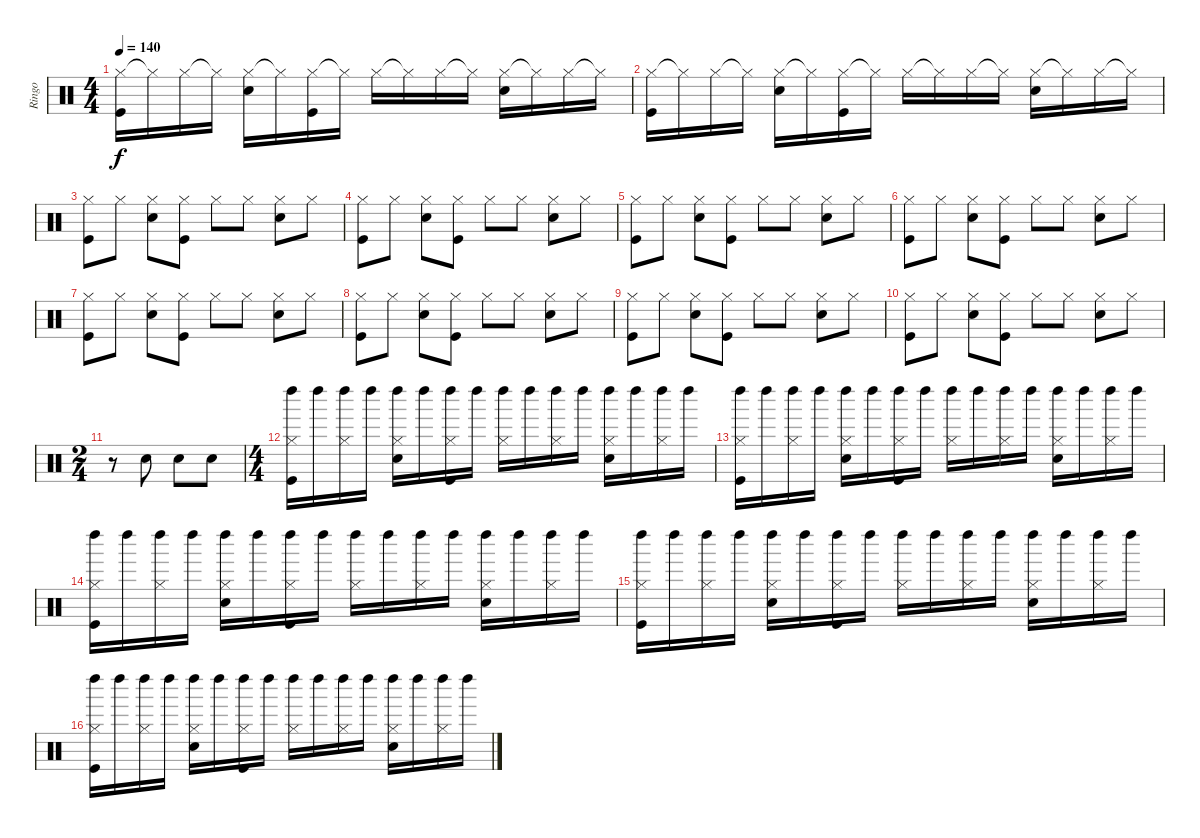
\track ("Ringo" "Ringo") {instrument percussion}
\staff {score}
\articulation defaults
\ts (4 4)
\tempo 140
\clef neutral
\ks c
("Hi-Hat (closed)" "Kick (hit)").16{dy f} "Hi-Hat (closed)"{t}.16 "Hi-Hat (closed)".16 "Hi-Hat (closed)"{t}.16 ("Hi-Hat (closed)" "Snare (hit) 2").16 "Hi-Hat (closed)"{t}.16 ("Hi-Hat (closed)" "Kick (hit)").16 "Hi-Hat (closed)"{t}.16 "Hi-Hat (closed)".16 "Hi-Hat (closed)"{t}.16 "Hi-Hat (closed)".16 "Hi-Hat (closed)"{t}.16 ("Hi-Hat (closed)" "Snare (hit) 2").16 "Hi-Hat (closed)"{t}.16 "Hi-Hat (closed)".16 "Hi-Hat (closed)"{t}.16 |
("Hi-Hat (closed)" "Kick (hit)").16 "Hi-Hat (closed)"{t}.16 "Hi-Hat (closed)".16 "Hi-Hat (closed)"{t}.16 ("Hi-Hat (closed)" "Snare (hit) 2").16 "Hi-Hat (closed)"{t}.16 ("Hi-Hat (closed)" "Kick (hit)").16 "Hi-Hat (closed)"{t}.16 "Hi-Hat (closed)".16 "Hi-Hat (closed)"{t}.16 "Hi-Hat (closed)".16 "Hi-Hat (closed)"{t}.16 ("Hi-Hat (closed)" "Snare (hit) 2").16 "Hi-Hat (closed)"{t}.16 "Hi-Hat (closed)".16 "Hi-Hat (closed)"{t}.16 |
("Hi-Hat (closed)" "Kick (hit)").8 "Hi-Hat (closed)".8 ("Hi-Hat (closed)" "Snare (hit) 2").8 ("Hi-Hat (closed)" "Kick (hit)").8 "Hi-Hat (closed)".8 "Hi-Hat (closed)".8 ("Hi-Hat (closed)" "Snare (hit) 2").8 "Hi-Hat (closed)".8 |
("Hi-Hat (closed)" "Kick (hit)").8 "Hi-Hat (closed)".8 ("Hi-Hat (closed)" "Snare (hit) 2").8 ("Hi-Hat (closed)" "Kick (hit)").8 "Hi-Hat (closed)".8 "Hi-Hat (closed)".8 ("Hi-Hat (closed)" "Snare (hit) 2").8 "Hi-Hat (closed)".8 |
("Hi-Hat (closed)" "Kick (hit)").8 "Hi-Hat (closed)".8 ("Hi-Hat (closed)" "Snare (hit) 2").8 ("Hi-Hat (closed)" "Kick (hit)").8 "Hi-Hat (closed)".8 "Hi-Hat (closed)".8 ("Hi-Hat (closed)" "Snare (hit) 2").8 "Hi-Hat (closed)".8 |
("Hi-Hat (closed)" "Kick (hit)").8 "Hi-Hat (closed)".8 ("Hi-Hat (closed)" "Snare (hit) 2").8 ("Hi-Hat (closed)" "Kick (hit)").8 "Hi-Hat (closed)".8 "Hi-Hat (closed)".8 ("Hi-Hat (closed)" "Snare (hit) 2").8 "Hi-Hat (closed)".8 |
("Hi-Hat (closed)" "Kick (hit)").8 "Hi-Hat (closed)".8 ("Hi-Hat (closed)" "Snare (hit) 2").8 ("Hi-Hat (closed)" "Kick (hit)").8 "Hi-Hat (closed)".8 "Hi-Hat (closed)".8 ("Hi-Hat (closed)" "Snare (hit) 2").8 "Hi-Hat (closed)".8 |
("Hi-Hat (closed)" "Kick (hit)").8 "Hi-Hat (closed)".8 ("Hi-Hat (closed)" "Snare (hit) 2").8 ("Hi-Hat (closed)" "Kick (hit)").8 "Hi-Hat (closed)".8 "Hi-Hat (closed)".8 ("Hi-Hat (closed)" "Snare (hit) 2").8 "Hi-Hat (closed)".8 |
("Hi-Hat (closed)" "Kick (hit)").8 "Hi-Hat (closed)".8 ("Hi-Hat (closed)" "Snare (hit) 2").8 ("Hi-Hat (closed)" "Kick (hit)").8 "Hi-Hat (closed)".8 "Hi-Hat (closed)".8 ("Hi-Hat (closed)" "Snare (hit) 2").8 "Hi-Hat (closed)".8 |
("Hi-Hat (closed)" "Kick (hit)").8 "Hi-Hat (closed)".8 ("Hi-Hat (closed)" "Snare (hit) 2").8 ("Hi-Hat (closed)" "Kick (hit)").8 "Hi-Hat (closed)".8 "Hi-Hat (closed)".8 ("Hi-Hat (closed)" "Snare (hit) 2").8 "Hi-Hat (closed)".8 |
\ts (2 4)
r.8 "Snare (hit) 2".8 "Snare (hit) 2".8 "Snare (hit) 2".8 |
\ts (4 4)
("Left Maraca (hit)" "Hi-Hat (closed)" "Kick (hit)").16 "Left Maraca (hit)".16 ("Left Maraca (hit)" "Hi-Hat (closed)").16 "Left Maraca (hit)".16 ("Left Maraca (hit)" "Hi-Hat (closed)" "Snare (hit) 2").16 "Left Maraca (hit)".16 ("Left Maraca (hit)" "Hi-Hat (closed)" "Kick (hit)").16 "Left Maraca (hit)".16 ("Left Maraca (hit)" "Hi-Hat (closed)").16 "Left Maraca (hit)".16 ("Left Maraca (hit)" "Hi-Hat (closed)").16 "Left Maraca (hit)".16 ("Left Maraca (hit)" "Hi-Hat (closed)" "Snare (hit) 2").16 "Left Maraca (hit)".16 ("Left Maraca (hit)" "Hi-Hat (closed)").16 "Left Maraca (hit)".16 |
("Left Maraca (hit)" "Hi-Hat (closed)" "Kick (hit)").16 "Left Maraca (hit)".16 ("Left Maraca (hit)" "Hi-Hat (closed)").16 "Left Maraca (hit)".16 ("Left Maraca (hit)" "Hi-Hat (closed)" "Snare (hit) 2").16 "Left Maraca (hit)".16 ("Left Maraca (hit)" "Hi-Hat (closed)" "Kick (hit)").16 "Left Maraca (hit)".16 ("Left Maraca (hit)" "Hi-Hat (closed)").16 "Left Maraca (hit)".16 ("Left Maraca (hit)" "Hi-Hat (closed)").16 "Left Maraca (hit)".16 ("Left Maraca (hit)" "Hi-Hat (closed)" "Snare (hit) 2").16 "Left Maraca (hit)".16 ("Left Maraca (hit)" "Hi-Hat (closed)").16 "Left Maraca (hit)".16 |
("Left Maraca (hit)" "Hi-Hat (closed)" "Kick (hit)").16 "Left Maraca (hit)".16 ("Left Maraca (hit)" "Hi-Hat (closed)").16 "Left Maraca (hit)".16 ("Left Maraca (hit)" "Hi-Hat (closed)" "Snare (hit) 2").16 "Left Maraca (hit)".16 ("Left Maraca (hit)" "Hi-Hat (closed)" "Kick (hit)").16 "Left Maraca (hit)".16 ("Left Maraca (hit)" "Hi-Hat (closed)").16 "Left Maraca (hit)".16 ("Left Maraca (hit)" "Hi-Hat (closed)").16 "Left Maraca (hit)".16 ("Left Maraca (hit)" "Hi-Hat (closed)" "Snare (hit) 2").16 "Left Maraca (hit)".16 ("Left Maraca (hit)" "Hi-Hat (closed)").16 "Left Maraca (hit)".16 |
("Left Maraca (hit)" "Hi-Hat (closed)" "Kick (hit)").16 "Left Maraca (hit)".16 ("Left Maraca (hit)" "Hi-Hat (closed)").16 "Left Maraca (hit)".16 ("Left Maraca (hit)" "Hi-Hat (closed)" "Snare (hit) 2").16 "Left Maraca (hit)".16 ("Left Maraca (hit)" "Hi-Hat (closed)" "Kick (hit)").16 "Left Maraca (hit)".16 ("Left Maraca (hit)" "Hi-Hat (closed)").16 "Left Maraca (hit)".16 ("Left Maraca (hit)" "Hi-Hat (closed)").16 "Left Maraca (hit)".16 ("Left Maraca (hit)" "Hi-Hat (closed)" "Snare (hit) 2").16 "Left Maraca (hit)".16 ("Left Maraca (hit)" "Hi-Hat (closed)").16 "Left Maraca (hit)".16 |
("Left Maraca (hit)" "Hi-Hat (closed)" "Kick (hit)").16 "Left Maraca (hit)".16 ("Left Maraca (hit)" "Hi-Hat (closed)").16 "Left Maraca (hit)".16 ("Left Maraca (hit)" "Hi-Hat (closed)" "Snare (hit) 2").16 "Left Maraca (hit)".16 ("Left Maraca (hit)" "Hi-Hat (closed)" "Kick (hit)").16 "Left Maraca (hit)".16 ("Left Maraca (hit)" "Hi-Hat (closed)").16 "Left Maraca (hit)".16 ("Left Maraca (hit)" "Hi-Hat (closed)").16 "Left Maraca (hit)".16 ("Left Maraca (hit)" "Hi-Hat (closed)" "Snare (hit) 2").16 "Left Maraca (hit)".16 ("Left Maraca (hit)" "Hi-Hat (closed)").16 "Left Maraca (hit)".16
